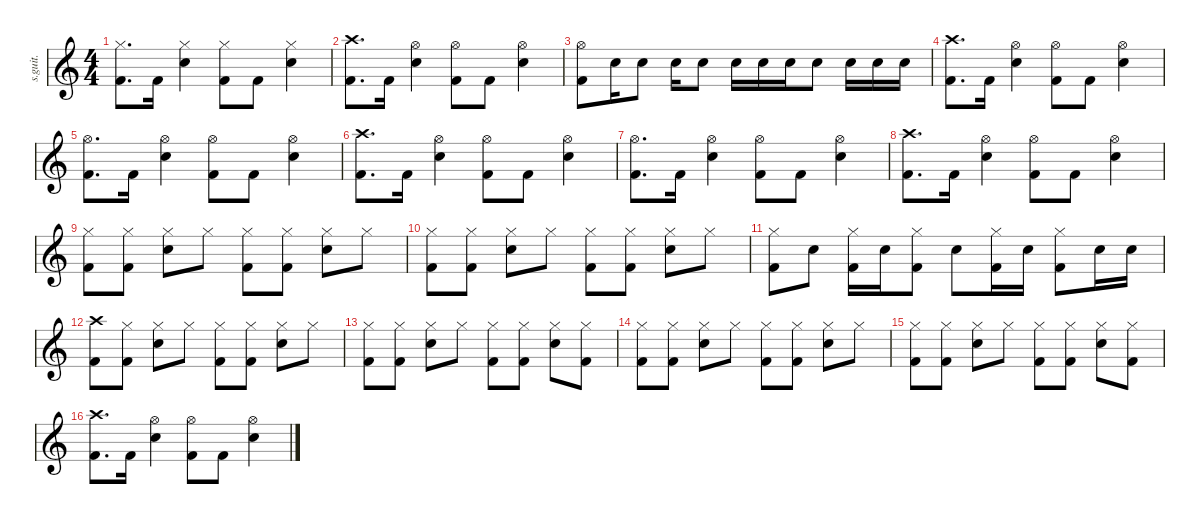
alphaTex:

\defaultSystemsLayout 4
\hideDynamics
\bracketExtendMode nobrackets
\track ("" "s.guit.") {instrument percussion}
\staff {score}
\articulation defaults
\ts (4 4)
\tempo (180 hide)
\clef g2
\ks c
("Kick (hit) 2" "Hi-Hat (closed)").8{d dy f} "Kick (hit) 2".16 ("Snare (hit) 2" "Hi-Hat (closed)").4 ("Kick (hit) 2" "Hi-Hat (closed)").8 "Kick (hit) 2".8 ("Snare (hit) 2" "Hi-Hat (closed)").4 |
("Kick (hit) 2" "Crash high (hit)").8{d} "Kick (hit) 2".16 ("Snare (hit) 2" "Hi-Hat (open)").4 ("Kick (hit) 2" "Hi-Hat (open)").8 "Kick (hit) 2".8 ("Snare (hit) 2" "Hi-Hat (open)").4 |
("Kick (hit) 2" "Hi-Hat (open)").8 "Snare (hit) 2".16 "Snare (hit) 2".8 "Snare (hit) 2".16 "Snare (hit) 2".8 "Snare (hit) 2".16 "Snare (hit) 2".16 "Snare (hit) 2".16 "Snare (hit) 2".8 "Snare (hit) 2".16 "Snare (hit) 2".16 "Snare (hit) 2".16 |
("Kick (hit) 2" "Crash high (hit)").8{d} "Kick (hit) 2".16 ("Snare (hit) 2" "Hi-Hat (open)").4 ("Kick (hit) 2" "Hi-Hat (open)").8 "Kick (hit) 2".8 ("Snare (hit) 2" "Hi-Hat (open)").4 |
("Kick (hit) 2" "Hi-Hat (open)").8{d} "Kick (hit) 2".16 ("Snare (hit) 2" "Hi-Hat (open)").4 ("Kick (hit) 2" "Hi-Hat (open)").8 "Kick (hit) 2".8 ("Snare (hit) 2" "Hi-Hat (open)").4 |
("Kick (hit) 2" "Crash high (hit)").8{d} "Kick (hit) 2".16 ("Snare (hit) 2" "Hi-Hat (open)").4 ("Kick (hit) 2" "Hi-Hat (open)").8 "Kick (hit) 2".8 ("Snare (hit) 2" "Hi-Hat (open)").4 |
("Kick (hit) 2" "Hi-Hat (open)").8{d} "Kick (hit) 2".16 ("Snare (hit) 2" "Hi-Hat (open)").4 ("Kick (hit) 2" "Hi-Hat (open)").8 "Kick (hit) 2".8 ("Snare (hit) 2" "Hi-Hat (open)").4 |
("Kick (hit) 2" "Crash high (hit)").8{d} "Kick (hit) 2".16 ("Snare (hit) 2" "Hi-Hat (open)").4 ("Kick (hit) 2" "Hi-Hat (open)").8 "Kick (hit) 2".8 ("Snare (hit) 2" "Hi-Hat (open)").4 |
("Kick (hit) 2" "Hi-Hat (closed)").8 ("Kick (hit) 2" "Hi-Hat (closed)").8 ("Snare (hit) 2" "Hi-Hat (closed)").8 "Hi-Hat (closed)".8 ("Kick (hit) 2" "Hi-Hat (closed)").8 ("Kick (hit) 2" "Hi-Hat (closed)").8 ("Snare (hit) 2" "Hi-Hat (closed)").8 "Hi-Hat (closed)".8 |
("Kick (hit) 2" "Hi-Hat (closed)").8 ("Kick (hit) 2" "Hi-Hat (closed)").8 ("Snare (hit) 2" "Hi-Hat (closed)").8 "Hi-Hat (closed)".8 ("Kick (hit) 2" "Hi-Hat (closed)").8 ("Kick (hit) 2" "Hi-Hat (closed)").8 ("Snare (hit) 2" "Hi-Hat (closed)").8 "Hi-Hat (closed)".8 |
("Kick (hit) 2" "Hi-Hat (closed)").8 "Snare (hit) 2".8 ("Kick (hit) 2" "Hi-Hat (closed)").16 "Snare (hit) 2".16 ("Kick (hit) 2" "Hi-Hat (closed)").8 "Snare (hit) 2".8 ("Kick (hit) 2" "Hi-Hat (closed)").16 "Snare (hit) 2".16 ("Kick (hit) 2" "Hi-Hat (closed)").8 "Snare (hit) 2".16 "Snare (hit) 2".16 |
("Kick (hit) 2" "Crash high (hit)").8 ("Kick (hit) 2" "Hi-Hat (closed)").8 ("Snare (hit) 2" "Hi-Hat (closed)").8 "Hi-Hat (closed)".8 ("Kick (hit) 2" "Hi-Hat (closed)").8 ("Kick (hit) 2" "Hi-Hat (closed)").8 ("Snare (hit) 2" "Hi-Hat (closed)").8 "Hi-Hat (closed)".8 |
("Kick (hit) 2" "Hi-Hat (closed)").8 ("Kick (hit) 2" "Hi-Hat (closed)").8 ("Snare (hit) 2" "Hi-Hat (closed)").8 "Hi-Hat (closed)".8 ("Kick (hit) 2" "Hi-Hat (closed)").8 ("Kick (hit) 2" "Hi-Hat (closed)").8 ("Snare (hit) 2" "Hi-Hat (closed)").8 ("Kick (hit) 2" "Hi-Hat (closed)").8 |
("Kick (hit) 2" "Hi-Hat (closed)").8 ("Kick (hit) 2" "Hi-Hat (closed)").8 ("Snare (hit) 2" "Hi-Hat (closed)").8 "Hi-Hat (closed)".8 ("Kick (hit) 2" "Hi-Hat (closed)").8 ("Kick (hit) 2" "Hi-Hat (closed)").8 ("Snare (hit) 2" "Hi-Hat (closed)").8 "Hi-Hat (closed)".8 |
("Kick (hit) 2" "Hi-Hat (closed)").8 ("Kick (hit) 2" "Hi-Hat (closed)").8 ("Snare (hit) 2" "Hi-Hat (closed)").8 "Hi-Hat (closed)".8 ("Kick (hit) 2" "Hi-Hat (closed)").8 ("Kick (hit) 2" "Hi-Hat (closed)").8 ("Snare (hit) 2" "Hi-Hat (closed)").8 ("Kick (hit) 2" "Hi-Hat (closed)").8 |
("Kick (hit) 2" "Crash high (hit)").8{d} "Kick (hit) 2".16 ("Snare (hit) 2" "Hi-Hat (open)").4 ("Kick (hit) 2" "Hi-Hat (open)").8 "Kick (hit) 2".8 ("Snare (hit) 2" "Hi-Hat (open)").4
